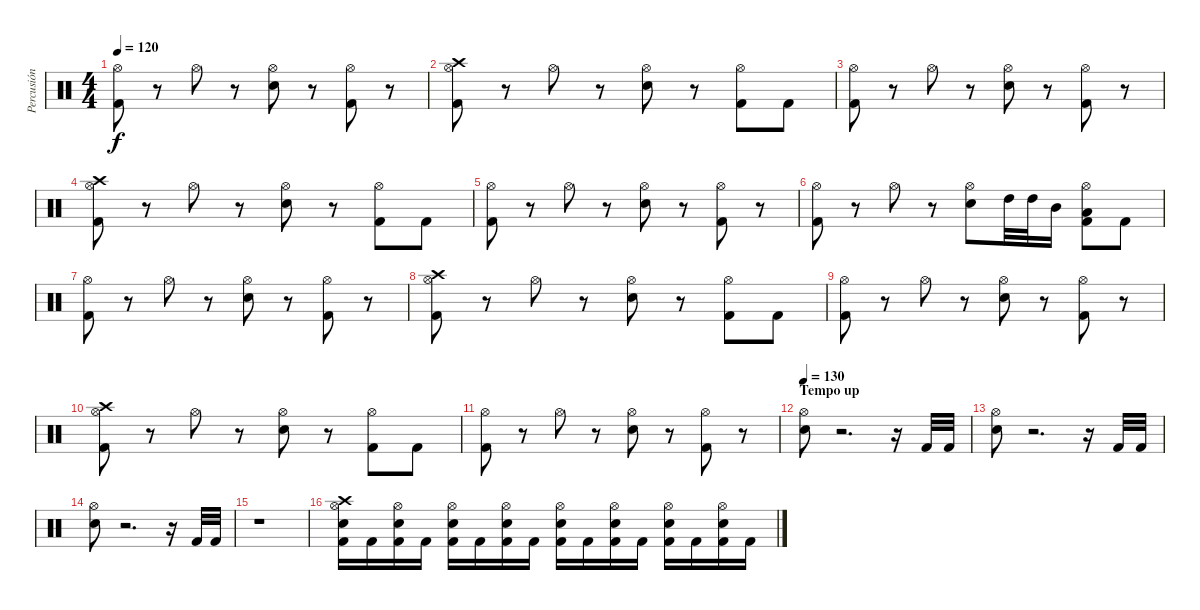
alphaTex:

\track ("Percusión" "Percusión") {instrument percussion}
\staff {score}
\articulation defaults
\ts (4 4)
\tempo 120
\clef neutral
\ks c
("Hi-Hat (open)" "Kick (hit) 2").8{dy f} r.8 "Hi-Hat (open)".8 r.8 ("Hi-Hat (open)" "Electric Snare (hit)").8 r.8 ("Hi-Hat (open)" "Kick (hit) 2").8 r.8 |
("Crash high (hit)" "Hi-Hat (open)" "Kick (hit) 2").8 r.8 "Hi-Hat (open)".8 r.8 ("Hi-Hat (open)" "Electric Snare (hit)").8 r.8 ("Hi-Hat (open)" "Kick (hit) 2").8 "Kick (hit) 2".8 |
("Hi-Hat (open)" "Kick (hit) 2").8 r.8 "Hi-Hat (open)".8 r.8 ("Hi-Hat (open)" "Electric Snare (hit)").8 r.8 ("Hi-Hat (open)" "Kick (hit) 2").8 r.8 |
("Crash high (hit)" "Hi-Hat (open)" "Kick (hit) 2").8 r.8 "Hi-Hat (open)".8 r.8 ("Hi-Hat (open)" "Electric Snare (hit)").8 r.8 ("Hi-Hat (open)" "Kick (hit) 2").8 "Kick (hit) 2".8 |
("Hi-Hat (open)" "Kick (hit) 2").8 r.8 "Hi-Hat (open)".8 r.8 ("Hi-Hat (open)" "Electric Snare (hit)").8 r.8 ("Hi-Hat (open)" "Kick (hit) 2").8 r.8 |
("Hi-Hat (open)" "Kick (hit) 2").8 r.8 "Hi-Hat (open)".8 r.8 ("Hi-Hat (open)" "Electric Snare (hit)").8 "High Tom (hit)".32 "High Tom (hit)".32 "Mid Tom (hit)".16 ("Hi-Hat (open)" "Low Tom (hit)" "Kick (hit) 2").8 "Kick (hit) 2".8 |
("Hi-Hat (open)" "Kick (hit) 2").8 r.8 "Hi-Hat (open)".8 r.8 ("Hi-Hat (open)" "Electric Snare (hit)").8 r.8 ("Hi-Hat (open)" "Kick (hit) 2").8 r.8 |
("Crash high (hit)" "Hi-Hat (open)" "Kick (hit) 2").8 r.8 "Hi-Hat (open)".8 r.8 ("Hi-Hat (open)" "Electric Snare (hit)").8 r.8 ("Hi-Hat (open)" "Kick (hit) 2").8 "Kick (hit) 2".8 |
("Hi-Hat (open)" "Kick (hit) 2").8 r.8 "Hi-Hat (open)".8 r.8 ("Hi-Hat (open)" "Electric Snare (hit)").8 r.8 ("Hi-Hat (open)" "Kick (hit) 2").8 r.8 |
("Crash high (hit)" "Hi-Hat (open)" "Kick (hit) 2").8 r.8 "Hi-Hat (open)".8 r.8 ("Hi-Hat (open)" "Electric Snare (hit)").8 r.8 ("Hi-Hat (open)" "Kick (hit) 2").8 "Kick (hit) 2".8 |
("Hi-Hat (open)" "Kick (hit) 2").8 r.8 "Hi-Hat (open)".8 r.8 ("Hi-Hat (open)" "Electric Snare (hit)").8 r.8 ("Hi-Hat (open)" "Kick (hit) 2").8 r.8 |
\section ("" "Tempo up")
\tempo 130
("Hi-Hat (open)" "Electric Snare (hit)").8 r.2{d} r.16 "Kick (hit) 2".32 "Kick (hit) 2".32 |
("Hi-Hat (open)" "Electric Snare (hit)").8 r.2{d} r.16 "Kick (hit) 2".32 "Kick (hit) 2".32 |
("Hi-Hat (open)" "Electric Snare (hit)").8 r.2{d} r.16 "Kick (hit) 2".32 "Kick (hit) 2".32 |
r.1 |
("Crash high (hit)" "Hi-Hat (open)" "Electric Snare (hit)" "Kick (hit) 2").16 "Kick (hit) 2".16 ("Hi-Hat (open)" "Electric Snare (hit)" "Kick (hit) 2").16 "Kick (hit) 2".16 ("Hi-Hat (open)" "Electric Snare (hit)" "Kick (hit) 2").16 "Kick (hit) 2".16 ("Hi-Hat (open)" "Electric Snare (hit)" "Kick (hit) 2").16 "Kick (hit) 2".16 ("Hi-Hat (open)" "Electric Snare (hit)" "Kick (hit) 2").16 "Kick (hit) 2".16 ("Hi-Hat (open)" "Electric Snare (hit)" "Kick (hit) 2").16 "Kick (hit) 2".16 ("Hi-Hat (open)" "Electric Snare (hit)" "Kick (hit) 2").16 "Kick (hit) 2".16 ("Hi-Hat (open)" "Electric Snare (hit)" "Kick (hit) 2").16 "Kick (hit) 2".16
